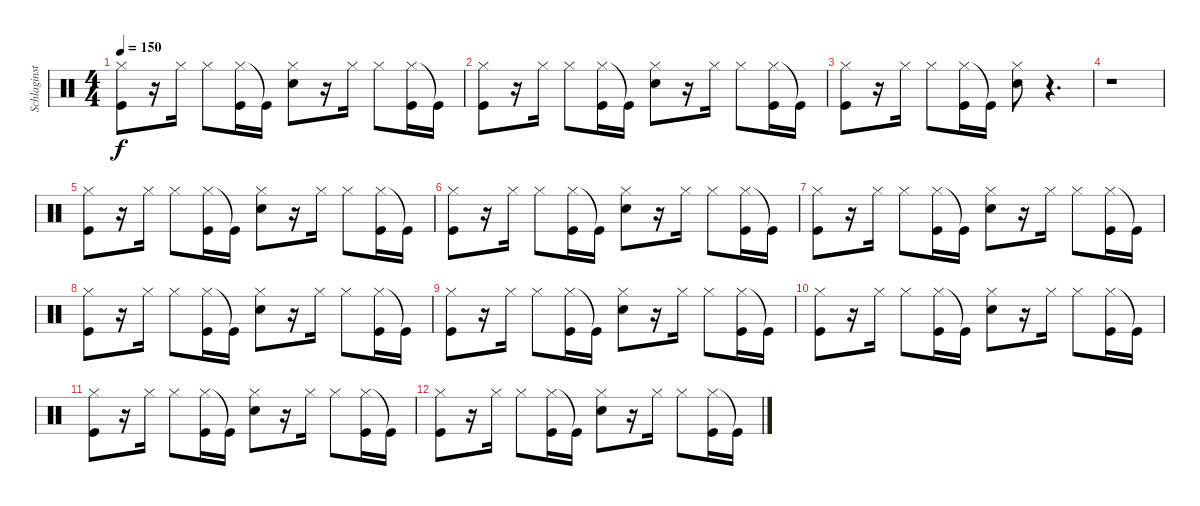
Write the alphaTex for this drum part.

\track ("Schlaginstrumente - Auswahl" "Schlaginst") {instrument percussion}
\staff {score}
\articulation defaults
\ts (4 4)
\tempo 150
\clef neutral
\ks c
("Hi-Hat (closed)" "Kick (hit)").8{dy f} r.16 "Hi-Hat (closed)".16 "Hi-Hat (closed)".8 ("Hi-Hat (closed)" "Kick (hit)").16 "Kick (hit)"{t}.16 ("Hi-Hat (closed)" "Hand Clap (hit)").8 r.16 "Hi-Hat (closed)".16 "Hi-Hat (closed)".8 ("Hi-Hat (closed)" "Kick (hit)").16 "Kick (hit)"{t}.16 |
("Hi-Hat (closed)" "Kick (hit)").8 r.16 "Hi-Hat (closed)".16 "Hi-Hat (closed)".8 ("Hi-Hat (closed)" "Kick (hit)").16 "Kick (hit)"{t}.16 ("Hi-Hat (closed)" "Hand Clap (hit)").8 r.16 "Hi-Hat (closed)".16 "Hi-Hat (closed)".8 ("Hi-Hat (closed)" "Kick (hit)").16 "Kick (hit)"{t}.16 |
("Kick (hit)" "Hi-Hat (closed)").8 r.16 "Hi-Hat (closed)".16 "Hi-Hat (closed)".8 ("Hi-Hat (closed)" "Kick (hit)").16 "Kick (hit)"{t}.16 ("Hi-Hat (closed)" "Hand Clap (hit)").8 r.4{d} |
r.1 |
("Kick (hit)" "Hi-Hat (closed)").8 r.16 "Hi-Hat (closed)".16 "Hi-Hat (closed)".8 ("Hi-Hat (closed)" "Kick (hit)").16 "Kick (hit)"{t}.16 ("Hi-Hat (closed)" "Hand Clap (hit)").8 r.16 "Hi-Hat (closed)".16 "Hi-Hat (closed)".8 ("Hi-Hat (closed)" "Kick (hit)").16 "Kick (hit)"{t}.16 |
("Hi-Hat (closed)" "Kick (hit)").8 r.16 "Hi-Hat (closed)".16 "Hi-Hat (closed)".8 ("Hi-Hat (closed)" "Kick (hit)").16 "Kick (hit)"{t}.16 ("Hi-Hat (closed)" "Hand Clap (hit)").8 r.16 "Hi-Hat (closed)".16 "Hi-Hat (closed)".8 ("Hi-Hat (closed)" "Kick (hit)").16 "Kick (hit)"{t}.16 |
("Kick (hit)" "Hi-Hat (closed)").8 r.16 "Hi-Hat (closed)".16 "Hi-Hat (closed)".8 ("Hi-Hat (closed)" "Kick (hit)").16 "Kick (hit)"{t}.16 ("Hi-Hat (closed)" "Hand Clap (hit)").8 r.16 "Hi-Hat (closed)".16 "Hi-Hat (closed)".8 ("Hi-Hat (closed)" "Kick (hit)").16 "Kick (hit)"{t}.16 |
("Kick (hit)" "Hi-Hat (closed)").8 r.16 "Hi-Hat (closed)".16 "Hi-Hat (closed)".8 ("Hi-Hat (closed)" "Kick (hit)").16 "Kick (hit)"{t}.16 ("Hi-Hat (closed)" "Hand Clap (hit)").8 r.16 "Hi-Hat (closed)".16 "Hi-Hat (closed)".8 ("Hi-Hat (closed)" "Kick (hit)").16 "Kick (hit)"{t}.16 |
("Hi-Hat (closed)" "Kick (hit)").8 r.16 "Hi-Hat (closed)".16 "Hi-Hat (closed)".8 ("Hi-Hat (closed)" "Kick (hit)").16 "Kick (hit)"{t}.16 ("Hi-Hat (closed)" "Hand Clap (hit)").8 r.16 "Hi-Hat (closed)".16 "Hi-Hat (closed)".8 ("Hi-Hat (closed)" "Kick (hit)").16 "Kick (hit)"{t}.16 |
("Kick (hit)" "Hi-Hat (closed)").8 r.16 "Hi-Hat (closed)".16 "Hi-Hat (closed)".8 ("Hi-Hat (closed)" "Kick (hit)").16 "Kick (hit)"{t}.16 ("Hi-Hat (closed)" "Hand Clap (hit)").8 r.16 "Hi-Hat (closed)".16 "Hi-Hat (closed)".8 ("Hi-Hat (closed)" "Kick (hit)").16 "Kick (hit)"{t}.16 |
("Hi-Hat (closed)" "Kick (hit)").8 r.16 "Hi-Hat (closed)".16 "Hi-Hat (closed)".8 ("Hi-Hat (closed)" "Kick (hit)").16 "Kick (hit)"{t}.16 ("Hi-Hat (closed)" "Hand Clap (hit)").8 r.16 "Hi-Hat (closed)".16 "Hi-Hat (closed)".8 ("Hi-Hat (closed)" "Kick (hit)").16 "Kick (hit)"{t}.16 |
("Kick (hit)" "Hi-Hat (closed)").8 r.16 "Hi-Hat (closed)".16 "Hi-Hat (closed)".8 ("Hi-Hat (closed)" "Kick (hit)").16 "Kick (hit)"{t}.16 ("Hi-Hat (closed)" "Hand Clap (hit)").8 r.16 "Hi-Hat (closed)".16 "Hi-Hat (closed)".8 ("Hi-Hat (closed)" "Kick (hit)").16 "Kick (hit)"{t}.16
